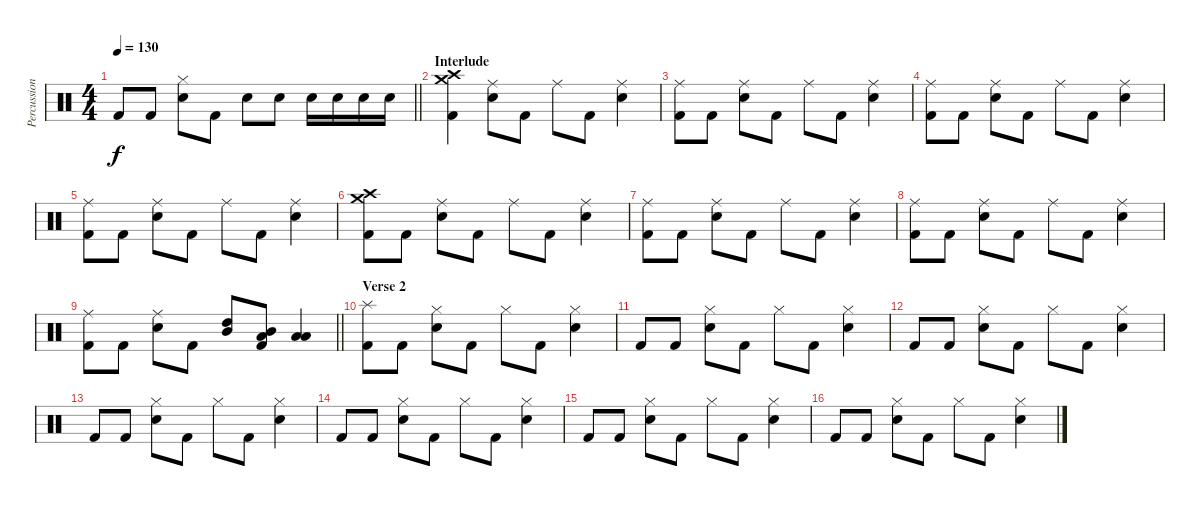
\track ("Percussion" "Percussion") {instrument percussion}
\staff {score}
\articulation defaults
\ts (4 4)
\tempo 130
\clef neutral
\barLineRight lightlight
\ks c "Kick (hit) 2".8{dy f} "Kick (hit) 2".8
("Hi-Hat (closed)" "Snare (hit) 2").8 "Kick (hit) 2".8 "Snare (hit) 2".8 "Snare (hit) 2".8 "Snare (hit) 2".16 "Snare (hit) 2".16 "Snare (hit) 2".16 "Snare (hit) 2".16 |
\section ("" "Interlude")
("Crash high (hit)" "Crash medium (hit)" "Kick (hit) 2").4 ("Ride (middle)" "Snare (hit) 2").8 "Kick (hit) 2".8 "Ride (middle)".8 "Kick (hit) 2".8 ("Ride (middle)" "Snare (hit) 2").4 |
("Ride (middle)" "Kick (hit) 2").8 "Kick (hit) 2".8 ("Ride (middle)" "Snare (hit) 2").8 "Kick (hit) 2".8 "Ride (middle)".8 "Kick (hit) 2".8 ("Ride (middle)" "Snare (hit) 2").4 |
("Ride (middle)" "Kick (hit) 2").8 "Kick (hit) 2".8 ("Ride (middle)" "Snare (hit) 2").8 "Kick (hit) 2".8 "Ride (middle)".8 "Kick (hit) 2".8 ("Ride (middle)" "Snare (hit) 2").4 |
("Ride (middle)" "Kick (hit) 2").8 "Kick (hit) 2".8 ("Ride (middle)" "Snare (hit) 2").8 "Kick (hit) 2".8 "Ride (middle)".8 "Kick (hit) 2".8 ("Ride (middle)" "Snare (hit) 2").4 |
("Crash high (hit)" "Crash medium (hit)" "Kick (hit) 2").8 "Kick (hit) 2".8 ("Ride (middle)" "Snare (hit) 2").8 "Kick (hit) 2".8 "Ride (middle)".8 "Kick (hit) 2".8 ("Ride (middle)" "Snare (hit) 2").4 |
("Ride (middle)" "Kick (hit) 2").8 "Kick (hit) 2".8 ("Ride (middle)" "Snare (hit) 2").8 "Kick (hit) 2".8 "Ride (middle)".8 "Kick (hit) 2".8 ("Ride (middle)" "Snare (hit) 2").4 |
("Ride (middle)" "Kick (hit) 2").8 "Kick (hit) 2".8 ("Ride (middle)" "Snare (hit) 2").8 "Kick (hit) 2".8 "Ride (middle)".8 "Kick (hit) 2".8 ("Ride (middle)" "Snare (hit) 2").4 |
\barLineRight lightlight
("Ride (middle)" "Kick (hit) 2").8 "Kick (hit) 2".8 ("Ride (middle)" "Snare (hit) 2").8 "Kick (hit) 2".8 ("Mid Tom (hit)" "High Tom (hit)").8 ("Low Tom (hit)" "Mid Tom (hit)" "Kick (hit) 2").8 ("Low Floor Tom (hit)" "Low Tom (hit)").4 |
\section ("" "Verse 2")
("Splash (hit)" "Kick (hit) 2").8 "Kick (hit) 2".8 ("Hi-Hat (closed)" "Snare (hit) 2").8 "Kick (hit) 2".8 "Hi-Hat (closed)".8 "Kick (hit) 2".8 ("Hi-Hat (closed)" "Snare (hit) 2").4 |
"Kick (hit) 2".8 "Kick (hit) 2".8 ("Hi-Hat (closed)" "Snare (hit) 2").8 "Kick (hit) 2".8 "Hi-Hat (closed)".8 "Kick (hit) 2".8 ("Hi-Hat (closed)" "Snare (hit) 2").4 |
"Kick (hit) 2".8 "Kick (hit) 2".8 ("Hi-Hat (closed)" "Snare (hit) 2").8 "Kick (hit) 2".8 "Hi-Hat (closed)".8 "Kick (hit) 2".8 ("Hi-Hat (closed)" "Snare (hit) 2").4 |
"Kick (hit) 2".8 "Kick (hit) 2".8 ("Hi-Hat (closed)" "Snare (hit) 2").8 "Kick (hit) 2".8 "Hi-Hat (closed)".8 "Kick (hit) 2".8 ("Hi-Hat (closed)" "Snare (hit) 2").4 |
"Kick (hit) 2".8 "Kick (hit) 2".8 ("Hi-Hat (closed)" "Snare (hit) 2").8 "Kick (hit) 2".8 "Hi-Hat (closed)".8 "Kick (hit) 2".8 ("Hi-Hat (closed)" "Snare (hit) 2").4 |
"Kick (hit) 2".8 "Kick (hit) 2".8 ("Hi-Hat (closed)" "Snare (hit) 2").8 "Kick (hit) 2".8 "Hi-Hat (closed)".8 "Kick (hit) 2".8 ("Hi-Hat (closed)" "Snare (hit) 2").4 |
"Kick (hit) 2".8 "Kick (hit) 2".8 ("Hi-Hat (closed)" "Snare (hit) 2").8 "Kick (hit) 2".8 "Hi-Hat (closed)".8 "Kick (hit) 2".8 ("Hi-Hat (closed)" "Snare (hit) 2").4
